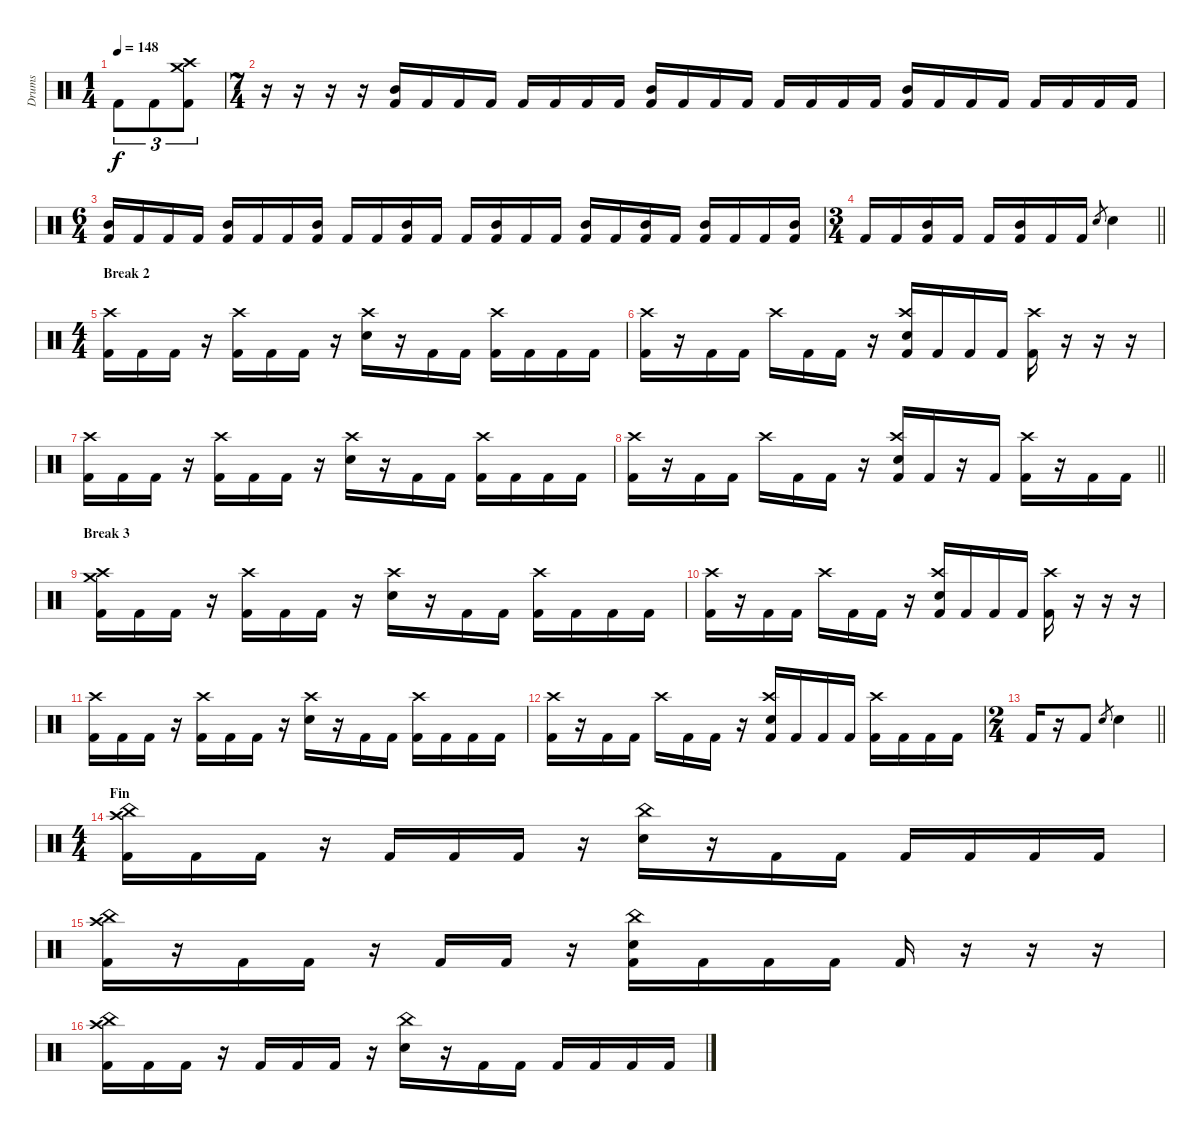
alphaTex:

\track ("Drums" "Drums") {instrument percussion}
\staff {score}
\articulation defaults
\ts (1 4)
\tempo 148
\clef neutral
\ks c "Kick (hit) 2".8{tu (3 2) dy f} "Kick (hit) 2".8{tu (3 2)}
("Crash medium (hit)" "Crash high (hit)" "Kick (hit) 2").8{tu (3 2)} |
\ts (7 4)
r.16 r.16 r.16 r.16 ("Mid Tom (hit)" "Kick (hit) 2").16 "Kick (hit) 2".16 "Kick (hit) 2".16 "Kick (hit) 2".16 "Kick (hit) 2".16 "Kick (hit) 2".16 "Kick (hit) 2".16 "Kick (hit) 2".16 ("Mid Tom (hit)" "Kick (hit) 2").16 "Kick (hit) 2".16 "Kick (hit) 2".16 "Kick (hit) 2".16 "Kick (hit) 2".16 "Kick (hit) 2".16 "Kick (hit) 2".16 "Kick (hit) 2".16 ("Mid Tom (hit)" "Kick (hit) 2").16 "Kick (hit) 2".16 "Kick (hit) 2".16 "Kick (hit) 2".16 "Kick (hit) 2".16 "Kick (hit) 2".16 "Kick (hit) 2".16 "Kick (hit) 2".16 |
\ts (6 4)
("Mid Tom (hit)" "Kick (hit) 2").16 "Kick (hit) 2".16 "Kick (hit) 2".16 "Kick (hit) 2".16 ("Mid Tom (hit)" "Kick (hit) 2").16 "Kick (hit) 2".16 "Kick (hit) 2".16 ("Mid Tom (hit)" "Kick (hit) 2").16 "Kick (hit) 2".16 "Kick (hit) 2".16 ("Mid Tom (hit)" "Kick (hit) 2").16 "Kick (hit) 2".16 "Kick (hit) 2".16 ("Mid Tom (hit)" "Kick (hit) 2").16 "Kick (hit) 2".16 "Kick (hit) 2".16 ("Mid Tom (hit)" "Kick (hit) 2").16 "Kick (hit) 2".16 ("Mid Tom (hit)" "Kick (hit) 2").16 "Kick (hit) 2".16 ("Mid Tom (hit)" "Kick (hit) 2").16 "Kick (hit) 2".16 "Kick (hit) 2".16 ("Mid Tom (hit)" "Kick (hit) 2").16 |
\ts (3 4)
\barLineRight lightlight "Kick (hit) 2".16 "Kick (hit) 2".16
("Mid Tom (hit)" "Kick (hit) 2").16 "Kick (hit) 2".16 "Kick (hit) 2".16 ("Mid Tom (hit)" "Kick (hit) 2").16 "Kick (hit) 2".16 "Kick (hit) 2".16 "Electric Snare (hit)".8{gr} "Electric Snare (hit)".4 |
\ts (4 4)
\section ("" "Break 2")
("Crash high (hit)" "Kick (hit) 2").16 "Kick (hit) 2".16 "Kick (hit) 2".16 r.16 ("Crash high (hit)" "Kick (hit) 2").16 "Kick (hit) 2".16 "Kick (hit) 2".16 r.16 ("Crash high (hit)" "Electric Snare (hit)").16 r.16 "Kick (hit) 2".16 "Kick (hit) 2".16 ("Crash high (hit)" "Kick (hit) 2").16 "Kick (hit) 2".16 "Kick (hit) 2".16 "Kick (hit) 2".16 |
("Crash high (hit)" "Kick (hit) 2").16 r.16 "Kick (hit) 2".16 "Kick (hit) 2".16 "Crash high (hit)".16 "Kick (hit) 2".16 "Kick (hit) 2".16 r.16 ("Crash high (hit)" "Electric Snare (hit)" "Kick (hit) 2").16 "Kick (hit) 2".16 "Kick (hit) 2".16 "Kick (hit) 2".16 ("Crash high (hit)" "Kick (hit) 2").16 r.16 r.16 r.16 |
("Crash high (hit)" "Kick (hit) 2").16 "Kick (hit) 2".16 "Kick (hit) 2".16 r.16 ("Crash high (hit)" "Kick (hit) 2").16 "Kick (hit) 2".16 "Kick (hit) 2".16 r.16 ("Crash high (hit)" "Electric Snare (hit)").16 r.16 "Kick (hit) 2".16 "Kick (hit) 2".16 ("Crash high (hit)" "Kick (hit) 2").16 "Kick (hit) 2".16 "Kick (hit) 2".16 "Kick (hit) 2".16 |
\barLineRight lightlight
("Crash high (hit)" "Kick (hit) 2").16 r.16 "Kick (hit) 2".16 "Kick (hit) 2".16 "Crash high (hit)".16 "Kick (hit) 2".16 "Kick (hit) 2".16 r.16 ("Crash high (hit)" "Electric Snare (hit)" "Kick (hit) 2").16 "Kick (hit) 2".16 r.16 "Kick (hit) 2".16 ("Crash high (hit)" "Kick (hit) 2").16 r.16 "Kick (hit) 2".16 "Kick (hit) 2".16 |
\section ("" "Break 3")
("Crash high (hit)" "Crash medium (hit)" "Kick (hit) 2").16 "Kick (hit) 2".16 "Kick (hit) 2".16 r.16 ("Crash high (hit)" "Kick (hit) 2").16 "Kick (hit) 2".16 "Kick (hit) 2".16 r.16 ("Crash high (hit)" "Electric Snare (hit)").16 r.16 "Kick (hit) 2".16 "Kick (hit) 2".16 ("Crash high (hit)" "Kick (hit) 2").16 "Kick (hit) 2".16 "Kick (hit) 2".16 "Kick (hit) 2".16 |
("Crash high (hit)" "Kick (hit) 2").16 r.16 "Kick (hit) 2".16 "Kick (hit) 2".16 "Crash high (hit)".16 "Kick (hit) 2".16 "Kick (hit) 2".16 r.16 ("Crash high (hit)" "Electric Snare (hit)" "Kick (hit) 2").16 "Kick (hit) 2".16 "Kick (hit) 2".16 "Kick (hit) 2".16 ("Crash high (hit)" "Kick (hit) 2").16 r.16 r.16 r.16 |
("Crash high (hit)" "Kick (hit) 2").16 "Kick (hit) 2".16 "Kick (hit) 2".16 r.16 ("Crash high (hit)" "Kick (hit) 2").16 "Kick (hit) 2".16 "Kick (hit) 2".16 r.16 ("Crash high (hit)" "Electric Snare (hit)").16 r.16 "Kick (hit) 2".16 "Kick (hit) 2".16 ("Crash high (hit)" "Kick (hit) 2").16 "Kick (hit) 2".16 "Kick (hit) 2".16 "Kick (hit) 2".16 |
("Crash high (hit)" "Kick (hit) 2").16 r.16 "Kick (hit) 2".16 "Kick (hit) 2".16 "Crash high (hit)".16 "Kick (hit) 2".16 "Kick (hit) 2".16 r.16 ("Crash high (hit)" "Electric Snare (hit)" "Kick (hit) 2").16 "Kick (hit) 2".16 "Kick (hit) 2".16 "Kick (hit) 2".16 ("Crash high (hit)" "Kick (hit) 2").16 "Kick (hit) 2".16 "Kick (hit) 2".16 "Kick (hit) 2".16 |
\ts (2 4)
\barLineRight lightlight "Kick (hit) 2".16
r.16 "Kick (hit) 2".8 "Electric Snare (hit)".8{gr} "Electric Snare (hit)".4 |
\ts (4 4)
\section ("" "Fin")
("Crash high (hit)" "China (hit)" "Kick (hit) 2").16 "Kick (hit) 2".16 "Kick (hit) 2".16 r.16 "Kick (hit) 2".16 "Kick (hit) 2".16 "Kick (hit) 2".16 r.16 ("China (hit)" "Electric Snare (hit)").16 r.16 "Kick (hit) 2".16 "Kick (hit) 2".16 "Kick (hit) 2".16 "Kick (hit) 2".16 "Kick (hit) 2".16 "Kick (hit) 2".16 |
("Crash high (hit)" "China (hit)" "Kick (hit) 2").16 r.16 "Kick (hit) 2".16 "Kick (hit) 2".16 r.16 "Kick (hit) 2".16 "Kick (hit) 2".16 r.16 ("China (hit)" "Electric Snare (hit)" "Kick (hit) 2").16 "Kick (hit) 2".16 "Kick (hit) 2".16 "Kick (hit) 2".16 "Kick (hit) 2".16 r.16 r.16 r.16 |
("Crash high (hit)" "China (hit)" "Kick (hit) 2").16 "Kick (hit) 2".16 "Kick (hit) 2".16 r.16 "Kick (hit) 2".16 "Kick (hit) 2".16 "Kick (hit) 2".16 r.16 ("China (hit)" "Electric Snare (hit)").16 r.16 "Kick (hit) 2".16 "Kick (hit) 2".16 "Kick (hit) 2".16 "Kick (hit) 2".16 "Kick (hit) 2".16 "Kick (hit) 2".16
